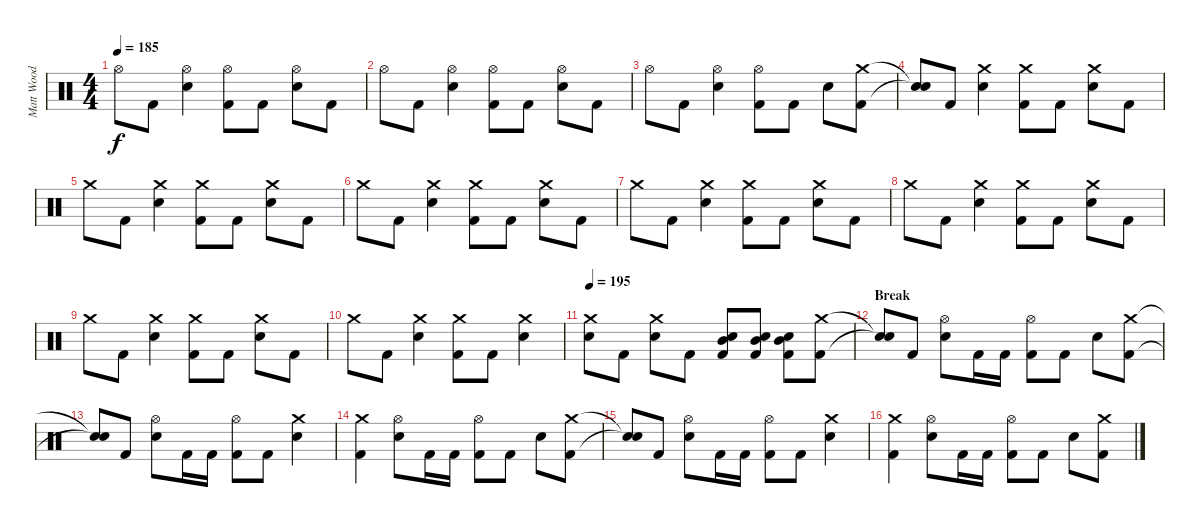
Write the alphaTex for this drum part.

\track ("Matt Wood" "Matt Wood") {instrument percussion}
\staff {score}
\articulation defaults
\ts (4 4)
\tempo 185
\clef neutral
\ks c "Hi-Hat (open)".8{dy f} "Kick (hit) 2".8
("Hi-Hat (open)" "Snare (hit) 2").4 ("Hi-Hat (open)" "Kick (hit) 2").8 "Kick (hit) 2".8 ("Hi-Hat (open)" "Snare (hit) 2").8 "Kick (hit) 2".8 |
"Hi-Hat (open)".8 "Kick (hit) 2".8 ("Hi-Hat (open)" "Snare (hit) 2").4 ("Hi-Hat (open)" "Kick (hit) 2").8 "Kick (hit) 2".8 ("Hi-Hat (open)" "Snare (hit) 2").8 "Kick (hit) 2".8 |
"Hi-Hat (open)".8 "Kick (hit) 2".8 ("Hi-Hat (open)" "Snare (hit) 2").4 ("Hi-Hat (open)" "Kick (hit) 2").8 "Kick (hit) 2".8 "Snare (hit) 2".8 ("Crash medium (hit)" "Kick (hit) 2").8 |
("Snare (hit)"{t} "Snare (hit)"{t}).8 "Kick (hit) 2".8 ("Crash medium (hit)" "Snare (hit) 2").4 ("Crash medium (hit)" "Kick (hit) 2").8 "Kick (hit) 2".8 ("Crash medium (hit)" "Snare (hit) 2").8 "Kick (hit) 2".8 |
"Crash medium (hit)".8 "Kick (hit) 2".8 ("Crash medium (hit)" "Snare (hit) 2").4 ("Crash medium (hit)" "Kick (hit) 2").8 "Kick (hit) 2".8 ("Crash medium (hit)" "Snare (hit) 2").8 "Kick (hit) 2".8 |
"Crash medium (hit)".8 "Kick (hit) 2".8 ("Crash medium (hit)" "Snare (hit) 2").4 ("Crash medium (hit)" "Kick (hit) 2").8 "Kick (hit) 2".8 ("Crash medium (hit)" "Snare (hit) 2").8 "Kick (hit) 2".8 |
"Crash medium (hit)".8 "Kick (hit) 2".8 ("Crash medium (hit)" "Snare (hit) 2").4 ("Crash medium (hit)" "Kick (hit) 2").8 "Kick (hit) 2".8 ("Crash medium (hit)" "Snare (hit) 2").8 "Kick (hit) 2".8 |
"Crash medium (hit)".8 "Kick (hit) 2".8 ("Crash medium (hit)" "Snare (hit) 2").4 ("Crash medium (hit)" "Kick (hit) 2").8 "Kick (hit) 2".8 ("Crash medium (hit)" "Snare (hit) 2").8 "Kick (hit) 2".8 |
"Crash medium (hit)".8 "Kick (hit) 2".8 ("Crash medium (hit)" "Snare (hit) 2").4 ("Crash medium (hit)" "Kick (hit) 2").8 "Kick (hit) 2".8 ("Crash medium (hit)" "Snare (hit) 2").8 "Kick (hit) 2".8 |
"Crash medium (hit)".8 "Kick (hit) 2".8 ("Crash medium (hit)" "Snare (hit) 2").4 ("Crash medium (hit)" "Kick (hit) 2").8 "Kick (hit) 2".8 ("Crash medium (hit)" "Snare (hit) 2").4 |
\tempo 195
("Crash medium (hit)" "Snare (hit) 2").8 "Kick (hit) 2".8 ("Crash medium (hit)" "Snare (hit) 2").8 "Kick (hit) 2".8 ("Mid Tom (hit)" "Snare (hit) 2" "Kick (hit) 2").8 ("Mid Tom (hit)" "Snare (hit) 2" "Kick (hit) 2").8 ("Mid Tom (hit)" "Snare (hit) 2" "Kick (hit) 2").8 ("Crash medium (hit)" "Kick (hit) 2").8 |
\section ("" "Break")
("Snare (hit)"{t} "Snare (hit)"{t}).8 "Kick (hit) 2".8 ("Hi-Hat (open)" "Snare (hit) 2").8 "Kick (hit) 2".16 "Kick (hit) 2".16 ("Hi-Hat (open)" "Kick (hit) 2").8 "Kick (hit) 2".8 "Snare (hit) 2".8 ("Crash medium (hit)" "Kick (hit) 2").8 |
("Snare (hit)"{t} "Snare (hit)"{t}).8 "Kick (hit) 2".8 ("Hi-Hat (open)" "Snare (hit) 2").8 "Kick (hit) 2".16 "Kick (hit) 2".16 ("Hi-Hat (open)" "Kick (hit) 2").8 "Kick (hit) 2".8 ("Crash medium (hit)" "Snare (hit) 2").4 |
("Crash medium (hit)" "Kick (hit) 2").4 ("Hi-Hat (open)" "Snare (hit) 2").8 "Kick (hit) 2".16 "Kick (hit) 2".16 ("Hi-Hat (open)" "Kick (hit) 2").8 "Kick (hit) 2".8 "Snare (hit) 2".8 ("Crash medium (hit)" "Kick (hit) 2").8 |
("Snare (hit)"{t} "Snare (hit)"{t}).8 "Kick (hit) 2".8 ("Hi-Hat (open)" "Snare (hit) 2").8 "Kick (hit) 2".16 "Kick (hit) 2".16 ("Hi-Hat (open)" "Kick (hit) 2").8 "Kick (hit) 2".8 ("Crash medium (hit)" "Snare (hit) 2").4 |
("Crash medium (hit)" "Kick (hit) 2").4 ("Hi-Hat (open)" "Snare (hit) 2").8 "Kick (hit) 2".16 "Kick (hit) 2".16 ("Hi-Hat (open)" "Kick (hit) 2").8 "Kick (hit) 2".8 "Snare (hit) 2".8 ("Crash medium (hit)" "Kick (hit) 2").8
